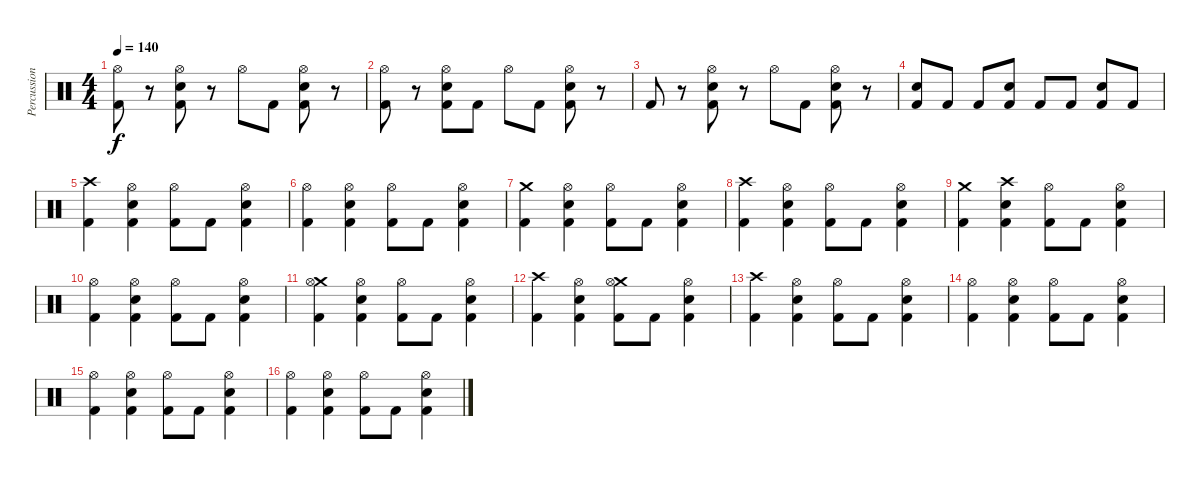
\track ("Percussion" "Percussion") {instrument percussion}
\staff {score}
\articulation defaults
\ts (4 4)
\tempo 140
\clef neutral
\ks c
("Hi-Hat (open)" "Kick (hit) 2").8{dy f} r.8 ("Snare (hit) 2" "Hi-Hat (open)" "Kick (hit) 2").8 r.8 "Hi-Hat (open)".8 "Kick (hit) 2".8 ("Snare (hit) 2" "Hi-Hat (open)" "Kick (hit) 2").8 r.8 |
("Hi-Hat (open)" "Kick (hit) 2").8 r.8 ("Snare (hit) 2" "Hi-Hat (open)" "Kick (hit) 2").8 "Kick (hit) 2".8 "Hi-Hat (open)".8 "Kick (hit) 2".8 ("Snare (hit) 2" "Hi-Hat (open)" "Kick (hit) 2").8 r.8 |
"Kick (hit) 2".8 r.8 ("Snare (hit) 2" "Hi-Hat (open)" "Kick (hit) 2").8 r.8 "Hi-Hat (open)".8 "Kick (hit) 2".8 ("Snare (hit) 2" "Hi-Hat (open)" "Kick (hit) 2").8 r.8 |
("Snare (hit) 2" "Kick (hit) 2").8 "Kick (hit) 2".8 "Kick (hit) 2".8 ("Snare (hit) 2" "Kick (hit) 2").8 "Kick (hit) 2".8 "Kick (hit) 2".8 ("Snare (hit) 2" "Kick (hit) 2").8 "Kick (hit) 2".8 |
("Crash high (hit)" "Kick (hit) 2").4 ("Snare (hit) 2" "Hi-Hat (open)" "Kick (hit) 2").4 ("Hi-Hat (open)" "Kick (hit) 2").8 "Kick (hit) 2".8 ("Snare (hit) 2" "Hi-Hat (open)" "Kick (hit) 2").4 |
("Hi-Hat (open)" "Kick (hit) 2").4 ("Snare (hit) 2" "Hi-Hat (open)" "Kick (hit) 2").4 ("Hi-Hat (open)" "Kick (hit) 2").8 "Kick (hit) 2".8 ("Snare (hit) 2" "Hi-Hat (open)" "Kick (hit) 2").4 |
("Crash medium (hit)" "Kick (hit) 2").4 ("Snare (hit) 2" "Hi-Hat (open)" "Kick (hit) 2").4 ("Hi-Hat (open)" "Kick (hit) 2").8 "Kick (hit) 2".8 ("Snare (hit) 2" "Hi-Hat (open)" "Kick (hit) 2").4 |
("Crash high (hit)" "Kick (hit) 2").4 ("Snare (hit) 2" "Hi-Hat (open)" "Kick (hit) 2").4 ("Hi-Hat (open)" "Kick (hit) 2").8 "Kick (hit) 2".8 ("Snare (hit) 2" "Hi-Hat (open)" "Kick (hit) 2").4 |
("Crash medium (hit)" "Kick (hit) 2").4 ("Crash high (hit)" "Snare (hit) 2" "Kick (hit) 2").4 ("Hi-Hat (open)" "Kick (hit) 2").8 "Kick (hit) 2".8 ("Snare (hit) 2" "Hi-Hat (open)" "Kick (hit) 2").4 |
("Hi-Hat (open)" "Kick (hit) 2").4 ("Snare (hit) 2" "Hi-Hat (open)" "Kick (hit) 2").4 ("Hi-Hat (open)" "Kick (hit) 2").8 "Kick (hit) 2".8 ("Snare (hit) 2" "Hi-Hat (open)" "Kick (hit) 2").4 |
("Crash medium (hit)" "Hi-Hat (open)" "Kick (hit) 2").4 ("Snare (hit) 2" "Hi-Hat (open)" "Kick (hit) 2").4 ("Hi-Hat (open)" "Kick (hit) 2").8 "Kick (hit) 2".8 ("Snare (hit) 2" "Hi-Hat (open)" "Kick (hit) 2").4 |
("Crash high (hit)" "Kick (hit) 2").4 ("Snare (hit) 2" "Hi-Hat (open)" "Kick (hit) 2").4 ("Crash medium (hit)" "Hi-Hat (open)" "Kick (hit) 2").8 "Kick (hit) 2".8 ("Snare (hit) 2" "Hi-Hat (open)" "Kick (hit) 2").4 |
("Crash high (hit)" "Kick (hit) 2").4 ("Snare (hit) 2" "Hi-Hat (open)" "Kick (hit) 2").4 ("Hi-Hat (open)" "Kick (hit) 2").8 "Kick (hit) 2".8 ("Snare (hit) 2" "Hi-Hat (open)" "Kick (hit) 2").4 |
("Hi-Hat (open)" "Kick (hit) 2").4 ("Snare (hit) 2" "Hi-Hat (open)" "Kick (hit) 2").4 ("Hi-Hat (open)" "Kick (hit) 2").8 "Kick (hit) 2".8 ("Snare (hit) 2" "Hi-Hat (open)" "Kick (hit) 2").4 |
("Hi-Hat (open)" "Kick (hit) 2").4 ("Snare (hit) 2" "Hi-Hat (open)" "Kick (hit) 2").4 ("Hi-Hat (open)" "Kick (hit) 2").8 "Kick (hit) 2".8 ("Snare (hit) 2" "Hi-Hat (open)" "Kick (hit) 2").4 |
("Hi-Hat (open)" "Kick (hit) 2").4 ("Snare (hit) 2" "Hi-Hat (open)" "Kick (hit) 2").4 ("Hi-Hat (open)" "Kick (hit) 2").8 "Kick (hit) 2".8 ("Snare (hit) 2" "Hi-Hat (open)" "Kick (hit) 2").4
